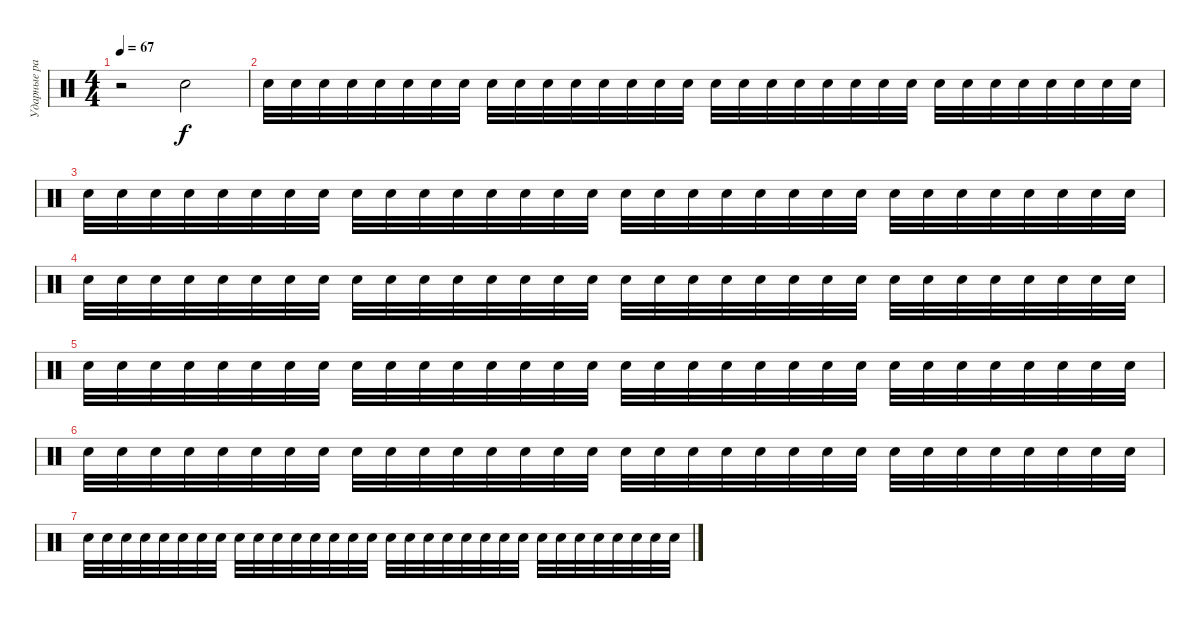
\track ("Ударные рабочий" "Ударные ра") {instrument percussion}
\staff {score}
\articulation defaults
\ts (4 4)
\tempo 67
\clef neutral
\ks c
r.2{dy f} "Snare (hit) 2".2 |
"Snare (hit) 2".32{volume 12} "Snare (hit) 2".32 "Snare (hit) 2".32 "Snare (hit) 2".32 "Snare (hit) 2".32 "Snare (hit) 2".32 "Snare (hit) 2".32 "Snare (hit) 2".32 "Snare (hit) 2".32 "Snare (hit) 2".32 "Snare (hit) 2".32 "Snare (hit) 2".32 "Snare (hit) 2".32 "Snare (hit) 2".32 "Snare (hit) 2".32 "Snare (hit) 2".32 "Snare (hit) 2".32 "Snare (hit) 2".32 "Snare (hit) 2".32 "Snare (hit) 2".32 "Snare (hit) 2".32 "Snare (hit) 2".32 "Snare (hit) 2".32 "Snare (hit) 2".32 "Snare (hit) 2".32 "Snare (hit) 2".32 "Snare (hit) 2".32 "Snare (hit) 2".32 "Snare (hit) 2".32 "Snare (hit) 2".32 "Snare (hit) 2".32 "Snare (hit) 2".32 |
"Snare (hit) 2".32 "Snare (hit) 2".32 "Snare (hit) 2".32 "Snare (hit) 2".32 "Snare (hit) 2".32 "Snare (hit) 2".32 "Snare (hit) 2".32 "Snare (hit) 2".32 "Snare (hit) 2".32 "Snare (hit) 2".32 "Snare (hit) 2".32 "Snare (hit) 2".32 "Snare (hit) 2".32 "Snare (hit) 2".32 "Snare (hit) 2".32 "Snare (hit) 2".32 "Snare (hit) 2".32 "Snare (hit) 2".32 "Snare (hit) 2".32 "Snare (hit) 2".32 "Snare (hit) 2".32 "Snare (hit) 2".32 "Snare (hit) 2".32 "Snare (hit) 2".32 "Snare (hit) 2".32 "Snare (hit) 2".32 "Snare (hit) 2".32 "Snare (hit) 2".32 "Snare (hit) 2".32 "Snare (hit) 2".32 "Snare (hit) 2".32 "Snare (hit) 2".32 |
"Snare (hit) 2".32 "Snare (hit) 2".32 "Snare (hit) 2".32 "Snare (hit) 2".32 "Snare (hit) 2".32 "Snare (hit) 2".32 "Snare (hit) 2".32 "Snare (hit) 2".32 "Snare (hit) 2".32 "Snare (hit) 2".32 "Snare (hit) 2".32 "Snare (hit) 2".32 "Snare (hit) 2".32 "Snare (hit) 2".32 "Snare (hit) 2".32 "Snare (hit) 2".32 "Snare (hit) 2".32 "Snare (hit) 2".32 "Snare (hit) 2".32 "Snare (hit) 2".32 "Snare (hit) 2".32 "Snare (hit) 2".32 "Snare (hit) 2".32 "Snare (hit) 2".32 "Snare (hit) 2".32 "Snare (hit) 2".32 "Snare (hit) 2".32 "Snare (hit) 2".32 "Snare (hit) 2".32 "Snare (hit) 2".32 "Snare (hit) 2".32 "Snare (hit) 2".32 |
"Snare (hit) 2".32 "Snare (hit) 2".32 "Snare (hit) 2".32 "Snare (hit) 2".32 "Snare (hit) 2".32 "Snare (hit) 2".32 "Snare (hit) 2".32 "Snare (hit) 2".32 "Snare (hit) 2".32 "Snare (hit) 2".32 "Snare (hit) 2".32 "Snare (hit) 2".32 "Snare (hit) 2".32 "Snare (hit) 2".32 "Snare (hit) 2".32 "Snare (hit) 2".32 "Snare (hit) 2".32 "Snare (hit) 2".32 "Snare (hit) 2".32 "Snare (hit) 2".32 "Snare (hit) 2".32 "Snare (hit) 2".32 "Snare (hit) 2".32 "Snare (hit) 2".32 "Snare (hit) 2".32 "Snare (hit) 2".32 "Snare (hit) 2".32 "Snare (hit) 2".32 "Snare (hit) 2".32 "Snare (hit) 2".32 "Snare (hit) 2".32 "Snare (hit) 2".32 |
"Snare (hit) 2".32 "Snare (hit) 2".32 "Snare (hit) 2".32 "Snare (hit) 2".32 "Snare (hit) 2".32 "Snare (hit) 2".32 "Snare (hit) 2".32 "Snare (hit) 2".32 "Snare (hit) 2".32 "Snare (hit) 2".32 "Snare (hit) 2".32 "Snare (hit) 2".32 "Snare (hit) 2".32 "Snare (hit) 2".32 "Snare (hit) 2".32 "Snare (hit) 2".32 "Snare (hit) 2".32 "Snare (hit) 2".32 "Snare (hit) 2".32 "Snare (hit) 2".32 "Snare (hit) 2".32 "Snare (hit) 2".32 "Snare (hit) 2".32 "Snare (hit) 2".32 "Snare (hit) 2".32 "Snare (hit) 2".32 "Snare (hit) 2".32 "Snare (hit) 2".32 "Snare (hit) 2".32 "Snare (hit) 2".32 "Snare (hit) 2".32 "Snare (hit) 2".32 |
"Snare (hit) 2".32 "Snare (hit) 2".32 "Snare (hit) 2".32 "Snare (hit) 2".32 "Snare (hit) 2".32 "Snare (hit) 2".32 "Snare (hit) 2".32 "Snare (hit) 2".32 "Snare (hit) 2".32 "Snare (hit) 2".32 "Snare (hit) 2".32 "Snare (hit) 2".32 "Snare (hit) 2".32 "Snare (hit) 2".32 "Snare (hit) 2".32 "Snare (hit) 2".32 "Snare (hit) 2".32 "Snare (hit) 2".32 "Snare (hit) 2".32 "Snare (hit) 2".32 "Snare (hit) 2".32 "Snare (hit) 2".32 "Snare (hit) 2".32 "Snare (hit) 2".32 "Snare (hit) 2".32 "Snare (hit) 2".32 "Snare (hit) 2".32 "Snare (hit) 2".32 "Snare (hit) 2".32 "Snare (hit) 2".32 "Snare (hit) 2".32 "Snare (hit) 2".32
